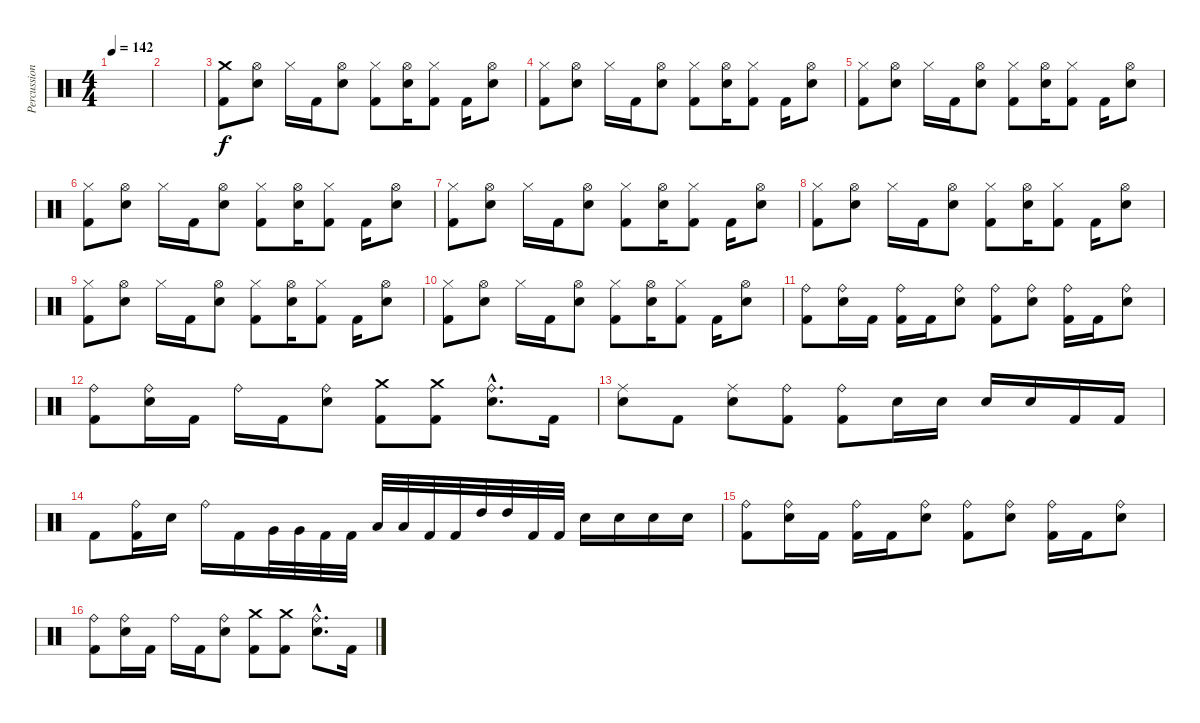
\track ("Percussion" "Percussion") {instrument percussion}
\staff {score}
\articulation defaults
\ts (4 4)
\tempo 142
\clef neutral
\ks c
|
|
("Crash medium (hit)" "Kick (hit) 2").8 ("Hi-Hat (open)" "Electric Snare (hit)").8 "Hi-Hat (closed)".16 "Kick (hit) 2".16 ("Hi-Hat (open)" "Electric Snare (hit)").8 ("Hi-Hat (closed)" "Kick (hit) 2").8 ("Hi-Hat (open)" "Electric Snare (hit)").16 ("Hi-Hat (closed)" "Kick (hit) 2").8 "Kick (hit) 2".16 ("Hi-Hat (open)" "Electric Snare (hit)").8 |
("Hi-Hat (closed)" "Kick (hit) 2").8 ("Hi-Hat (open)" "Electric Snare (hit)").8 "Hi-Hat (closed)".16 "Kick (hit) 2".16 ("Hi-Hat (open)" "Electric Snare (hit)").8 ("Hi-Hat (closed)" "Kick (hit) 2").8 ("Hi-Hat (open)" "Electric Snare (hit)").16 ("Hi-Hat (closed)" "Kick (hit) 2").8 "Kick (hit) 2".16 ("Hi-Hat (open)" "Electric Snare (hit)").8 |
("Hi-Hat (closed)" "Kick (hit) 2").8 ("Hi-Hat (open)" "Electric Snare (hit)").8 "Hi-Hat (closed)".16 "Kick (hit) 2".16 ("Hi-Hat (open)" "Electric Snare (hit)").8 ("Hi-Hat (closed)" "Kick (hit) 2").8 ("Hi-Hat (open)" "Electric Snare (hit)").16 ("Hi-Hat (closed)" "Kick (hit) 2").8 "Kick (hit) 2".16 ("Hi-Hat (open)" "Electric Snare (hit)").8 |
("Hi-Hat (closed)" "Kick (hit) 2").8 ("Hi-Hat (open)" "Electric Snare (hit)").8 "Hi-Hat (closed)".16 "Kick (hit) 2".16 ("Hi-Hat (open)" "Electric Snare (hit)").8 ("Hi-Hat (closed)" "Kick (hit) 2").8 ("Hi-Hat (open)" "Electric Snare (hit)").16 ("Hi-Hat (closed)" "Kick (hit) 2").8 "Kick (hit) 2".16 ("Hi-Hat (open)" "Electric Snare (hit)").8 |
("Hi-Hat (closed)" "Kick (hit) 2").8 ("Hi-Hat (open)" "Electric Snare (hit)").8 "Hi-Hat (closed)".16 "Kick (hit) 2".16 ("Hi-Hat (open)" "Electric Snare (hit)").8 ("Hi-Hat (closed)" "Kick (hit) 2").8 ("Hi-Hat (open)" "Electric Snare (hit)").16 ("Hi-Hat (closed)" "Kick (hit) 2").8 "Kick (hit) 2".16 ("Hi-Hat (open)" "Electric Snare (hit)").8 |
("Hi-Hat (closed)" "Kick (hit) 2").8 ("Hi-Hat (open)" "Electric Snare (hit)").8 "Hi-Hat (closed)".16 "Kick (hit) 2".16 ("Hi-Hat (open)" "Electric Snare (hit)").8 ("Hi-Hat (closed)" "Kick (hit) 2").8 ("Hi-Hat (open)" "Electric Snare (hit)").16 ("Hi-Hat (closed)" "Kick (hit) 2").8 "Kick (hit) 2".16 ("Hi-Hat (open)" "Electric Snare (hit)").8 |
("Hi-Hat (closed)" "Kick (hit) 2").8 ("Hi-Hat (open)" "Electric Snare (hit)").8 "Hi-Hat (closed)".16 "Kick (hit) 2".16 ("Hi-Hat (open)" "Electric Snare (hit)").8 ("Hi-Hat (closed)" "Kick (hit) 2").8 ("Hi-Hat (open)" "Electric Snare (hit)").16 ("Hi-Hat (closed)" "Kick (hit) 2").8 "Kick (hit) 2".16 ("Hi-Hat (open)" "Electric Snare (hit)").8 |
("Hi-Hat (closed)" "Kick (hit) 2").8 ("Hi-Hat (open)" "Electric Snare (hit)").8 "Hi-Hat (closed)".16 "Kick (hit) 2".16 ("Hi-Hat (open)" "Electric Snare (hit)").8 ("Hi-Hat (closed)" "Kick (hit) 2").8 ("Hi-Hat (open)" "Electric Snare (hit)").16 ("Hi-Hat (closed)" "Kick (hit) 2").8 "Kick (hit) 2".16 ("Hi-Hat (open)" "Electric Snare (hit)").8 |
("Ride (bell)" "Kick (hit) 2").8 ("Ride (bell)" "Electric Snare (hit)").16 "Kick (hit) 2".16 ("Ride (bell)" "Kick (hit) 2").16 "Kick (hit) 2".16 ("Ride (bell)" "Electric Snare (hit)").8 ("Ride (bell)" "Kick (hit) 2").8 ("Ride (bell)" "Electric Snare (hit)").8 ("Ride (bell)" "Kick (hit) 2").16 "Kick (hit) 2".16 ("Ride (bell)" "Electric Snare (hit)").8 |
("Ride (bell)" "Kick (hit) 2").8 ("Ride (bell)" "Electric Snare (hit)").16 "Kick (hit) 2".16 "Ride (bell)".16 "Kick (hit) 2".16 ("Ride (bell)" "Electric Snare (hit)").8 ("Crash medium (hit)" "Kick (hit) 2").8 ("Crash medium (hit)" "Kick (hit) 2").8 ("Ride (bell)"{hac} "Electric Snare (hit)"{hac}).8{d} "Kick (hit) 2".16 |
("Ride (middle)" "Electric Snare (hit)").8 "Kick (hit) 2".8 ("Ride (middle)" "Electric Snare (hit)").8 ("Ride (bell)" "Kick (hit) 2").8 ("Ride (bell)" "Kick (hit) 2").8 "Electric Snare (hit)".16 "Electric Snare (hit)".16 "Electric Snare (hit)".16 "Electric Snare (hit)".16 "Kick (hit) 2".16 "Kick (hit) 2".16 |
"Kick (hit) 2".8 ("Ride (bell)" "Kick (hit) 2").16 "Electric Snare (hit)".16 "Ride (bell)".16 "Kick (hit) 2".16 "Very Low Tom (hit)".32 "Very Low Tom (hit)".32 "Kick (hit) 2".32 "Kick (hit) 2".32 "Low Tom (hit)".32 "Low Tom (hit)".32 "Kick (hit) 2".32 "Kick (hit) 2".32 "High Tom (hit)".32 "High Tom (hit)".32 "Kick (hit) 2".32 "Kick (hit) 2".32 "Electric Snare (hit)".16 "Electric Snare (hit)".16 "Electric Snare (hit)".16 "Electric Snare (hit)".16 |
("Ride (bell)" "Kick (hit) 2").8 ("Ride (bell)" "Electric Snare (hit)").16 "Kick (hit) 2".16 ("Ride (bell)" "Kick (hit) 2").16 "Kick (hit) 2".16 ("Ride (bell)" "Electric Snare (hit)").8 ("Ride (bell)" "Kick (hit) 2").8 ("Ride (bell)" "Electric Snare (hit)").8 ("Ride (bell)" "Kick (hit) 2").16 "Kick (hit) 2".16 ("Ride (bell)" "Electric Snare (hit)").8 |
("Ride (bell)" "Kick (hit) 2").8 ("Ride (bell)" "Electric Snare (hit)").16 "Kick (hit) 2".16 "Ride (bell)".16 "Kick (hit) 2".16 ("Ride (bell)" "Electric Snare (hit)").8 ("Crash medium (hit)" "Kick (hit) 2").8 ("Crash medium (hit)" "Kick (hit) 2").8 ("Ride (bell)"{hac} "Electric Snare (hit)"{hac}).8{d} "Kick (hit) 2".16
